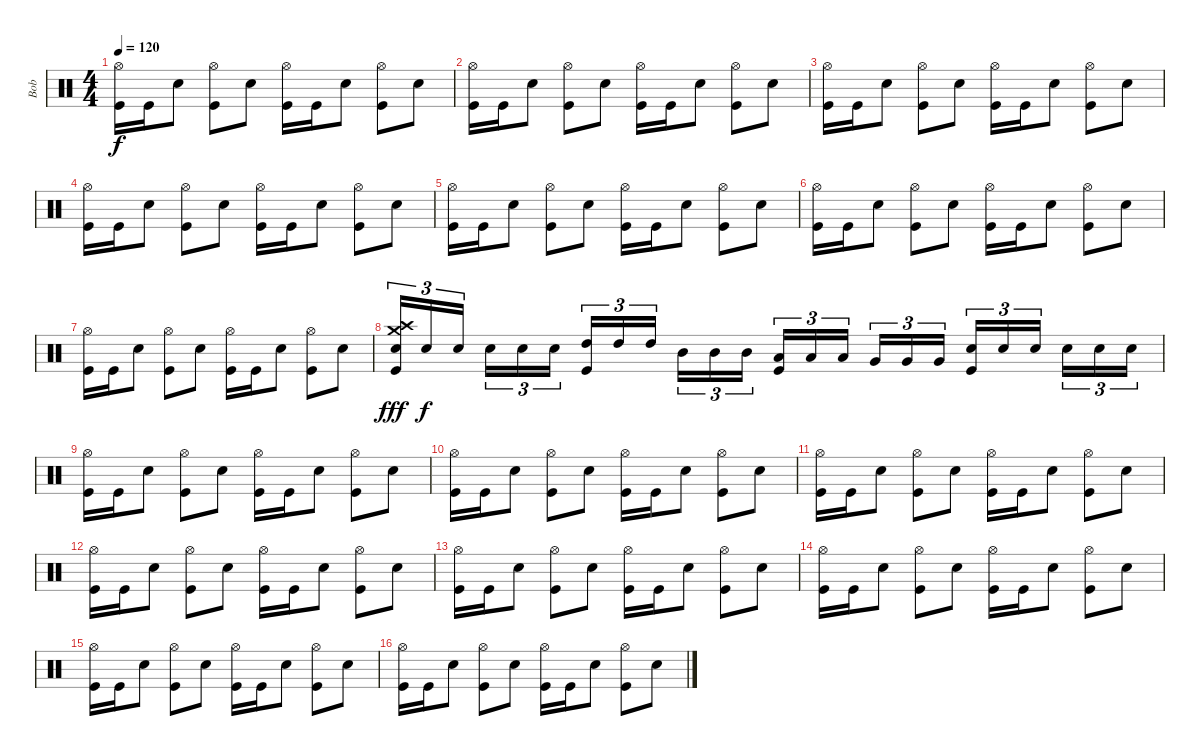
\track ("Bob" "Bob") {instrument percussion}
\staff {score}
\articulation defaults
\ts (4 4)
\tempo 120
\clef neutral
\ks c
("Hi-Hat (open)" "Kick (hit)").16{dy f} "Kick (hit)".16 "Snare (hit) 2".8 ("Hi-Hat (open)" "Kick (hit)").8 "Snare (hit) 2".8 ("Hi-Hat (open)" "Kick (hit)").16 "Kick (hit)".16 "Snare (hit) 2".8 ("Hi-Hat (open)" "Kick (hit)").8 "Snare (hit) 2".8 |
("Hi-Hat (open)" "Kick (hit)").16 "Kick (hit)".16 "Snare (hit) 2".8 ("Hi-Hat (open)" "Kick (hit)").8 "Snare (hit) 2".8 ("Hi-Hat (open)" "Kick (hit)").16 "Kick (hit)".16 "Snare (hit) 2".8 ("Hi-Hat (open)" "Kick (hit)").8 "Snare (hit) 2".8 |
("Hi-Hat (open)" "Kick (hit)").16 "Kick (hit)".16 "Snare (hit) 2".8 ("Hi-Hat (open)" "Kick (hit)").8 "Snare (hit) 2".8 ("Hi-Hat (open)" "Kick (hit)").16 "Kick (hit)".16 "Snare (hit) 2".8 ("Hi-Hat (open)" "Kick (hit)").8 "Snare (hit) 2".8 |
("Hi-Hat (open)" "Kick (hit)").16 "Kick (hit)".16 "Snare (hit) 2".8 ("Hi-Hat (open)" "Kick (hit)").8 "Snare (hit) 2".8 ("Hi-Hat (open)" "Kick (hit)").16 "Kick (hit)".16 "Snare (hit) 2".8 ("Hi-Hat (open)" "Kick (hit)").8 "Snare (hit) 2".8 |
("Hi-Hat (open)" "Kick (hit)").16 "Kick (hit)".16 "Snare (hit) 2".8 ("Hi-Hat (open)" "Kick (hit)").8 "Snare (hit) 2".8 ("Hi-Hat (open)" "Kick (hit)").16 "Kick (hit)".16 "Snare (hit) 2".8 ("Hi-Hat (open)" "Kick (hit)").8 "Snare (hit) 2".8 |
("Hi-Hat (open)" "Kick (hit)").16 "Kick (hit)".16 "Snare (hit) 2".8 ("Hi-Hat (open)" "Kick (hit)").8 "Snare (hit) 2".8 ("Hi-Hat (open)" "Kick (hit)").16 "Kick (hit)".16 "Snare (hit) 2".8 ("Hi-Hat (open)" "Kick (hit)").8 "Snare (hit) 2".8 |
("Hi-Hat (open)" "Kick (hit)").16 "Kick (hit)".16 "Snare (hit) 2".8 ("Hi-Hat (open)" "Kick (hit)").8 "Snare (hit) 2".8 ("Hi-Hat (open)" "Kick (hit)").16 "Kick (hit)".16 "Snare (hit) 2".8 ("Hi-Hat (open)" "Kick (hit)").8 "Snare (hit) 2".8 |
("Crash high (hit)" "Crash medium (hit)" "Electric Snare (hit)" "Kick (hit)").16{tu (3 2) dy fff} "Electric Snare (hit)".16{tu (3 2) dy f} "Electric Snare (hit)".16{tu (3 2)} "Snare (hit) 2".16{tu (3 2)} "Snare (hit) 2".16{tu (3 2)} "Snare (hit) 2".16{tu (3 2)} ("High Tom (hit)" "Kick (hit)").16{tu (3 2)} "High Tom (hit)".16{tu (3 2)} "High Tom (hit)".16{tu (3 2)} "Mid Tom (hit)".16{tu (3 2)} "Mid Tom (hit)".16{tu (3 2)} "Mid Tom (hit)".16{tu (3 2)} ("Low Tom (hit)" "Kick (hit)").16{tu (3 2)} "Low Tom (hit)".16{tu (3 2)} "Low Tom (hit)".16{tu (3 2)} "Very Low Tom (hit)".16{tu (3 2)} "Very Low Tom (hit)".16{tu (3 2)} "Very Low Tom (hit)".16{tu (3 2)} ("Snare (hit) 2" "Kick (hit)").16{tu (3 2)} "Snare (hit) 2".16{tu (3 2)} "Snare (hit) 2".16{tu (3 2)} "Snare (hit) 2".16{tu (3 2)} "Snare (hit) 2".16{tu (3 2)} "Snare (hit) 2".16{tu (3 2)} |
("Hi-Hat (open)" "Kick (hit)").16 "Kick (hit)".16 "Snare (hit) 2".8 ("Hi-Hat (open)" "Kick (hit)").8 "Snare (hit) 2".8 ("Hi-Hat (open)" "Kick (hit)").16 "Kick (hit)".16 "Snare (hit) 2".8 ("Hi-Hat (open)" "Kick (hit)").8 "Snare (hit) 2".8 |
("Hi-Hat (open)" "Kick (hit)").16 "Kick (hit)".16 "Snare (hit) 2".8 ("Hi-Hat (open)" "Kick (hit)").8 "Snare (hit) 2".8 ("Hi-Hat (open)" "Kick (hit)").16 "Kick (hit)".16 "Snare (hit) 2".8 ("Hi-Hat (open)" "Kick (hit)").8 "Snare (hit) 2".8 |
("Hi-Hat (open)" "Kick (hit)").16 "Kick (hit)".16 "Snare (hit) 2".8 ("Hi-Hat (open)" "Kick (hit)").8 "Snare (hit) 2".8 ("Hi-Hat (open)" "Kick (hit)").16 "Kick (hit)".16 "Snare (hit) 2".8 ("Hi-Hat (open)" "Kick (hit)").8 "Snare (hit) 2".8 |
("Hi-Hat (open)" "Kick (hit)").16 "Kick (hit)".16 "Snare (hit) 2".8 ("Hi-Hat (open)" "Kick (hit)").8 "Snare (hit) 2".8 ("Hi-Hat (open)" "Kick (hit)").16 "Kick (hit)".16 "Snare (hit) 2".8 ("Hi-Hat (open)" "Kick (hit)").8 "Snare (hit) 2".8 |
("Hi-Hat (open)" "Kick (hit)").16 "Kick (hit)".16 "Snare (hit) 2".8 ("Hi-Hat (open)" "Kick (hit)").8 "Snare (hit) 2".8 ("Hi-Hat (open)" "Kick (hit)").16 "Kick (hit)".16 "Snare (hit) 2".8 ("Hi-Hat (open)" "Kick (hit)").8 "Snare (hit) 2".8 |
("Hi-Hat (open)" "Kick (hit)").16 "Kick (hit)".16 "Snare (hit) 2".8 ("Hi-Hat (open)" "Kick (hit)").8 "Snare (hit) 2".8 ("Hi-Hat (open)" "Kick (hit)").16 "Kick (hit)".16 "Snare (hit) 2".8 ("Hi-Hat (open)" "Kick (hit)").8 "Snare (hit) 2".8 |
("Hi-Hat (open)" "Kick (hit)").16 "Kick (hit)".16 "Snare (hit) 2".8 ("Hi-Hat (open)" "Kick (hit)").8 "Snare (hit) 2".8 ("Hi-Hat (open)" "Kick (hit)").16 "Kick (hit)".16 "Snare (hit) 2".8 ("Hi-Hat (open)" "Kick (hit)").8 "Snare (hit) 2".8 |
("Hi-Hat (open)" "Kick (hit)").16 "Kick (hit)".16 "Snare (hit) 2".8 ("Hi-Hat (open)" "Kick (hit)").8 "Snare (hit) 2".8 ("Hi-Hat (open)" "Kick (hit)").16 "Kick (hit)".16 "Snare (hit) 2".8 ("Hi-Hat (open)" "Kick (hit)").8 "Snare (hit) 2".8
